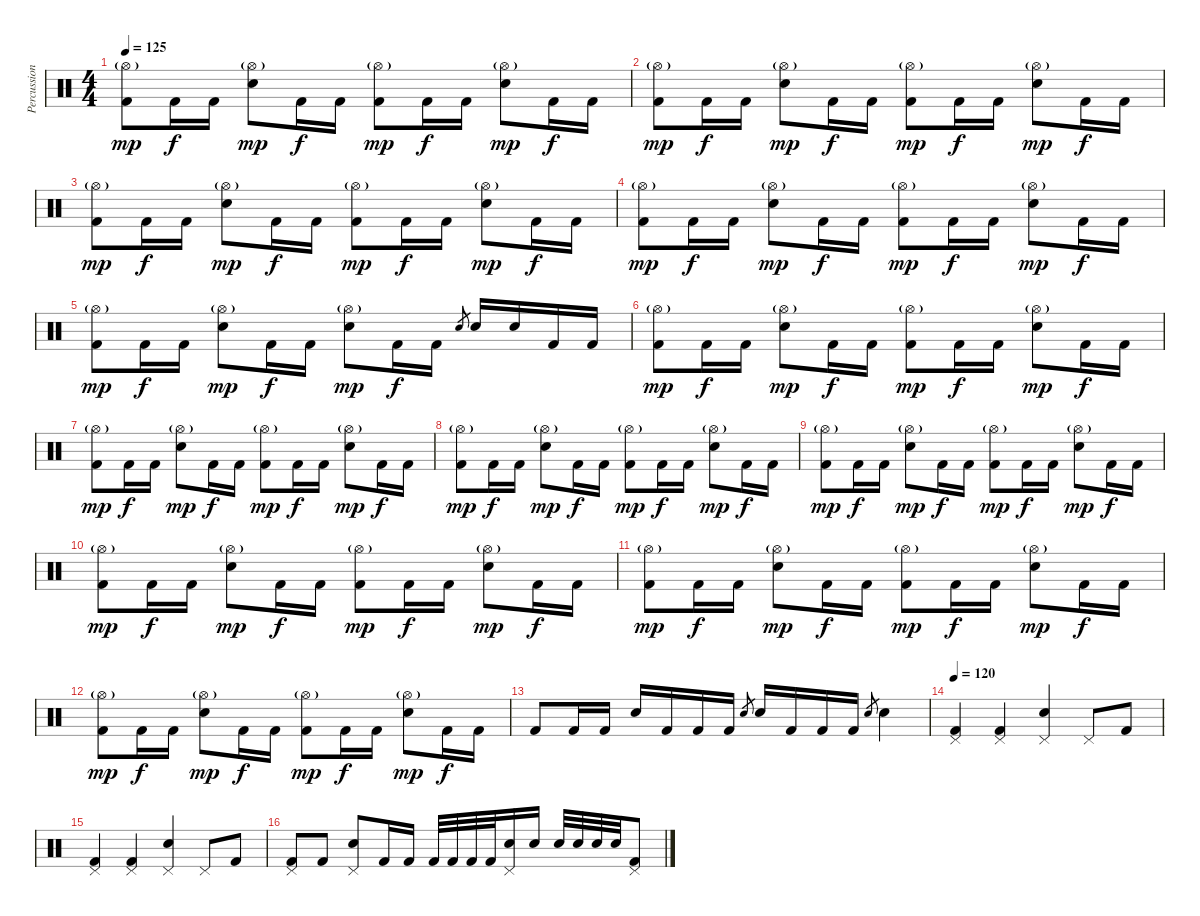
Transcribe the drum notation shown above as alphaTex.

\track ("Percussion" "Percussion") {instrument percussion}
\staff {score}
\articulation defaults
\ts (4 4)
\tempo 125
\clef neutral
\ks c
("Hi-Hat (open)"{g} "Kick (hit) 2").8{dy mp} "Kick (hit) 2".16{dy f} "Kick (hit) 2".16 ("Hi-Hat (open)"{g} "Electric Snare (hit)").8{dy mp} "Kick (hit) 2".16{dy f} "Kick (hit) 2".16 ("Hi-Hat (open)"{g} "Kick (hit) 2").8{dy mp} "Kick (hit) 2".16{dy f} "Kick (hit) 2".16 ("Hi-Hat (open)"{g} "Electric Snare (hit)").8{dy mp} "Kick (hit) 2".16{dy f} "Kick (hit) 2".16 |
("Hi-Hat (open)"{g} "Kick (hit) 2").8{dy mp} "Kick (hit) 2".16{dy f} "Kick (hit) 2".16 ("Hi-Hat (open)"{g} "Electric Snare (hit)").8{dy mp} "Kick (hit) 2".16{dy f} "Kick (hit) 2".16 ("Hi-Hat (open)"{g} "Kick (hit) 2").8{dy mp} "Kick (hit) 2".16{dy f} "Kick (hit) 2".16 ("Hi-Hat (open)"{g} "Electric Snare (hit)").8{dy mp} "Kick (hit) 2".16{dy f} "Kick (hit) 2".16 |
("Hi-Hat (open)"{g} "Kick (hit) 2").8{dy mp} "Kick (hit) 2".16{dy f} "Kick (hit) 2".16 ("Hi-Hat (open)"{g} "Electric Snare (hit)").8{dy mp} "Kick (hit) 2".16{dy f} "Kick (hit) 2".16 ("Hi-Hat (open)"{g} "Kick (hit) 2").8{dy mp} "Kick (hit) 2".16{dy f} "Kick (hit) 2".16 ("Hi-Hat (open)"{g} "Electric Snare (hit)").8{dy mp} "Kick (hit) 2".16{dy f} "Kick (hit) 2".16 |
("Hi-Hat (open)"{g} "Kick (hit) 2").8{dy mp} "Kick (hit) 2".16{dy f} "Kick (hit) 2".16 ("Hi-Hat (open)"{g} "Electric Snare (hit)").8{dy mp} "Kick (hit) 2".16{dy f} "Kick (hit) 2".16 ("Hi-Hat (open)"{g} "Kick (hit) 2").8{dy mp} "Kick (hit) 2".16{dy f} "Kick (hit) 2".16 ("Hi-Hat (open)"{g} "Electric Snare (hit)").8{dy mp} "Kick (hit) 2".16{dy f} "Kick (hit) 2".16 |
("Hi-Hat (open)"{g} "Kick (hit) 2").8{dy mp} "Kick (hit) 2".16{dy f} "Kick (hit) 2".16 ("Hi-Hat (open)"{g} "Electric Snare (hit)").8{dy mp} "Kick (hit) 2".16{dy f} "Kick (hit) 2".16 ("Hi-Hat (open)"{g} "Electric Snare (hit)").8{dy mp} "Kick (hit) 2".16{dy f} "Kick (hit) 2".16 "Electric Snare (hit)".8{gr} "Electric Snare (hit)".16 "Electric Snare (hit)".16 "Kick (hit) 2".16 "Kick (hit) 2".16 |
("Hi-Hat (open)"{g} "Kick (hit) 2").8{dy mp} "Kick (hit) 2".16{dy f} "Kick (hit) 2".16 ("Hi-Hat (open)"{g} "Electric Snare (hit)").8{dy mp} "Kick (hit) 2".16{dy f} "Kick (hit) 2".16 ("Hi-Hat (open)"{g} "Kick (hit) 2").8{dy mp} "Kick (hit) 2".16{dy f} "Kick (hit) 2".16 ("Hi-Hat (open)"{g} "Electric Snare (hit)").8{dy mp} "Kick (hit) 2".16{dy f} "Kick (hit) 2".16 |
("Hi-Hat (open)"{g} "Kick (hit) 2").8{dy mp} "Kick (hit) 2".16{dy f} "Kick (hit) 2".16 ("Hi-Hat (open)"{g} "Electric Snare (hit)").8{dy mp} "Kick (hit) 2".16{dy f} "Kick (hit) 2".16 ("Hi-Hat (open)"{g} "Kick (hit) 2").8{dy mp} "Kick (hit) 2".16{dy f} "Kick (hit) 2".16 ("Hi-Hat (open)"{g} "Electric Snare (hit)").8{dy mp} "Kick (hit) 2".16{dy f} "Kick (hit) 2".16 |
("Hi-Hat (open)"{g} "Kick (hit) 2").8{dy mp} "Kick (hit) 2".16{dy f} "Kick (hit) 2".16 ("Hi-Hat (open)"{g} "Electric Snare (hit)").8{dy mp} "Kick (hit) 2".16{dy f} "Kick (hit) 2".16 ("Hi-Hat (open)"{g} "Kick (hit) 2").8{dy mp} "Kick (hit) 2".16{dy f} "Kick (hit) 2".16 ("Hi-Hat (open)"{g} "Electric Snare (hit)").8{dy mp} "Kick (hit) 2".16{dy f} "Kick (hit) 2".16 |
("Hi-Hat (open)"{g} "Kick (hit) 2").8{dy mp} "Kick (hit) 2".16{dy f} "Kick (hit) 2".16 ("Hi-Hat (open)"{g} "Electric Snare (hit)").8{dy mp} "Kick (hit) 2".16{dy f} "Kick (hit) 2".16 ("Hi-Hat (open)"{g} "Kick (hit) 2").8{dy mp} "Kick (hit) 2".16{dy f} "Kick (hit) 2".16 ("Hi-Hat (open)"{g} "Electric Snare (hit)").8{dy mp} "Kick (hit) 2".16{dy f} "Kick (hit) 2".16 |
("Hi-Hat (open)"{g} "Kick (hit) 2").8{dy mp} "Kick (hit) 2".16{dy f} "Kick (hit) 2".16 ("Hi-Hat (open)"{g} "Electric Snare (hit)").8{dy mp} "Kick (hit) 2".16{dy f} "Kick (hit) 2".16 ("Hi-Hat (open)"{g} "Kick (hit) 2").8{dy mp} "Kick (hit) 2".16{dy f} "Kick (hit) 2".16 ("Hi-Hat (open)"{g} "Electric Snare (hit)").8{dy mp} "Kick (hit) 2".16{dy f} "Kick (hit) 2".16 |
("Hi-Hat (open)"{g} "Kick (hit) 2").8{dy mp} "Kick (hit) 2".16{dy f} "Kick (hit) 2".16 ("Hi-Hat (open)"{g} "Electric Snare (hit)").8{dy mp} "Kick (hit) 2".16{dy f} "Kick (hit) 2".16 ("Hi-Hat (open)"{g} "Kick (hit) 2").8{dy mp} "Kick (hit) 2".16{dy f} "Kick (hit) 2".16 ("Hi-Hat (open)"{g} "Electric Snare (hit)").8{dy mp} "Kick (hit) 2".16{dy f} "Kick (hit) 2".16 |
("Hi-Hat (open)"{g} "Kick (hit) 2").8{dy mp} "Kick (hit) 2".16{dy f} "Kick (hit) 2".16 ("Hi-Hat (open)"{g} "Electric Snare (hit)").8{dy mp} "Kick (hit) 2".16{dy f} "Kick (hit) 2".16 ("Hi-Hat (open)"{g} "Kick (hit) 2").8{dy mp} "Kick (hit) 2".16{dy f} "Kick (hit) 2".16 ("Hi-Hat (open)"{g} "Electric Snare (hit)").8{dy mp} "Kick (hit) 2".16{dy f} "Kick (hit) 2".16 |
"Kick (hit) 2".8 "Kick (hit) 2".16 "Kick (hit) 2".16 "Electric Snare (hit)".16 "Kick (hit) 2".16 "Kick (hit) 2".16 "Kick (hit) 2".16 "Electric Snare (hit)".8{gr} "Electric Snare (hit)".16 "Kick (hit) 2".16 "Kick (hit) 2".16 "Kick (hit) 2".16 "Electric Snare (hit)".8{gr} "Electric Snare (hit)".4 |
\tempo 120
("Pedal Hi-Hat (hit)" "Kick (hit) 2").4 ("Pedal Hi-Hat (hit)" "Kick (hit) 2").4 ("Pedal Hi-Hat (hit)" "Electric Snare (hit)").4 "Pedal Hi-Hat (hit)".8 "Kick (hit) 2".8 |
("Pedal Hi-Hat (hit)" "Kick (hit) 2").4 ("Pedal Hi-Hat (hit)" "Kick (hit) 2").4 ("Pedal Hi-Hat (hit)" "Electric Snare (hit)").4 "Pedal Hi-Hat (hit)".8 "Kick (hit) 2".8 |
("Pedal Hi-Hat (hit)" "Kick (hit) 2").8 "Kick (hit) 2".8 ("Pedal Hi-Hat (hit)" "Electric Snare (hit)").8 "Kick (hit) 2".16 "Kick (hit) 2".16 "Kick (hit) 2".32 "Kick (hit) 2".32 "Kick (hit) 2".32 "Kick (hit) 2".32 ("Pedal Hi-Hat (hit)" "Electric Snare (hit)").16 "Electric Snare (hit)".16 "Electric Snare (hit)".32 "Electric Snare (hit)".32 "Electric Snare (hit)".32 "Electric Snare (hit)".32 ("Pedal Hi-Hat (hit)" "Kick (hit) 2").8
